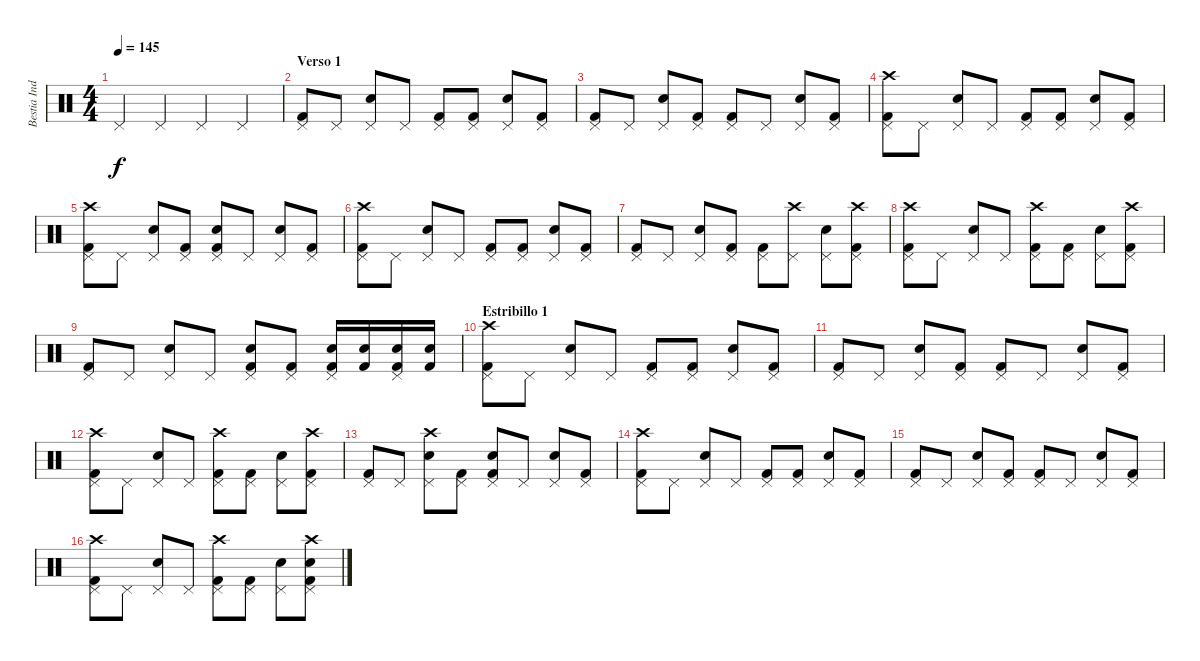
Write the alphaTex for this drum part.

\track ("Bestia Indomable" "Bestia Ind") {instrument percussion}
\staff {score}
\articulation defaults
\ts (4 4)
\tempo 145
\clef neutral
\ks c "Pedal Hi-Hat (hit)"{t}.4{dy f} "Pedal Hi-Hat (hit)".4 "Pedal Hi-Hat (hit)".4 "Pedal Hi-Hat (hit)".4
|
\section ("" "Verso 1")
("Pedal Hi-Hat (hit)" "Kick (hit) 2").8 "Pedal Hi-Hat (hit)".8 ("Pedal Hi-Hat (hit)" "Electric Snare (hit)").8 "Pedal Hi-Hat (hit)".8 ("Pedal Hi-Hat (hit)" "Kick (hit) 2").8 ("Pedal Hi-Hat (hit)" "Kick (hit) 2").8 ("Pedal Hi-Hat (hit)" "Electric Snare (hit)").8 ("Pedal Hi-Hat (hit)" "Kick (hit) 2").8 |
("Pedal Hi-Hat (hit)" "Kick (hit) 2").8 "Pedal Hi-Hat (hit)".8 ("Pedal Hi-Hat (hit)" "Electric Snare (hit)").8 ("Pedal Hi-Hat (hit)" "Kick (hit) 2").8 ("Pedal Hi-Hat (hit)" "Kick (hit) 2").8 "Pedal Hi-Hat (hit)".8 ("Pedal Hi-Hat (hit)" "Electric Snare (hit)").8 ("Pedal Hi-Hat (hit)" "Kick (hit) 2").8 |
("Pedal Hi-Hat (hit)" "Crash high (hit)" "Kick (hit) 2").8 "Pedal Hi-Hat (hit)".8 ("Pedal Hi-Hat (hit)" "Electric Snare (hit)").8 "Pedal Hi-Hat (hit)".8 ("Pedal Hi-Hat (hit)" "Kick (hit) 2").8 ("Pedal Hi-Hat (hit)" "Kick (hit) 2").8 ("Pedal Hi-Hat (hit)" "Electric Snare (hit)").8 ("Pedal Hi-Hat (hit)" "Kick (hit) 2").8 |
("Pedal Hi-Hat (hit)" "Crash high (hit)" "Kick (hit) 2").8 "Pedal Hi-Hat (hit)".8 ("Pedal Hi-Hat (hit)" "Electric Snare (hit)").8 ("Pedal Hi-Hat (hit)" "Kick (hit) 2").8 ("Pedal Hi-Hat (hit)" "Electric Snare (hit)" "Kick (hit) 2").8 "Pedal Hi-Hat (hit)".8 ("Pedal Hi-Hat (hit)" "Electric Snare (hit)").8 ("Pedal Hi-Hat (hit)" "Kick (hit) 2").8 |
("Pedal Hi-Hat (hit)" "Crash high (hit)" "Kick (hit) 2").8 "Pedal Hi-Hat (hit)".8 ("Pedal Hi-Hat (hit)" "Electric Snare (hit)").8 "Pedal Hi-Hat (hit)".8 ("Pedal Hi-Hat (hit)" "Kick (hit) 2").8 ("Pedal Hi-Hat (hit)" "Kick (hit) 2").8 ("Pedal Hi-Hat (hit)" "Electric Snare (hit)").8 ("Pedal Hi-Hat (hit)" "Kick (hit) 2").8 |
("Pedal Hi-Hat (hit)" "Kick (hit) 2").8 "Pedal Hi-Hat (hit)".8 ("Pedal Hi-Hat (hit)" "Electric Snare (hit)").8 ("Pedal Hi-Hat (hit)" "Kick (hit) 2").8 ("Pedal Hi-Hat (hit)" "Kick (hit) 2").8 ("Pedal Hi-Hat (hit)" "Crash high (hit)").8 ("Pedal Hi-Hat (hit)" "Electric Snare (hit)").8 ("Pedal Hi-Hat (hit)" "Crash high (hit)" "Kick (hit) 2").8 |
("Pedal Hi-Hat (hit)" "Crash high (hit)" "Kick (hit) 2").8 "Pedal Hi-Hat (hit)".8 ("Pedal Hi-Hat (hit)" "Electric Snare (hit)").8 "Pedal Hi-Hat (hit)".8 ("Pedal Hi-Hat (hit)" "Crash high (hit)" "Kick (hit) 2").8 ("Pedal Hi-Hat (hit)" "Kick (hit) 2").8 ("Pedal Hi-Hat (hit)" "Electric Snare (hit)").8 ("Pedal Hi-Hat (hit)" "Crash high (hit)" "Kick (hit) 2").8 |
("Pedal Hi-Hat (hit)" "Kick (hit) 2").8 "Pedal Hi-Hat (hit)".8 ("Pedal Hi-Hat (hit)" "Electric Snare (hit)").8 "Pedal Hi-Hat (hit)".8 ("Pedal Hi-Hat (hit)" "Electric Snare (hit)" "Kick (hit) 2").8 ("Pedal Hi-Hat (hit)" "Kick (hit) 2").8 ("Pedal Hi-Hat (hit)" "Electric Snare (hit)" "Kick (hit) 2").16 ("Electric Snare (hit)" "Kick (hit) 2").16 ("Pedal Hi-Hat (hit)" "Electric Snare (hit)" "Kick (hit) 2").16 ("Electric Snare (hit)" "Kick (hit) 2").16 |
\section ("" "Estribillo 1")
("Pedal Hi-Hat (hit)" "Crash high (hit)" "Kick (hit) 2").8 "Pedal Hi-Hat (hit)".8 ("Pedal Hi-Hat (hit)" "Electric Snare (hit)").8 "Pedal Hi-Hat (hit)".8 ("Pedal Hi-Hat (hit)" "Kick (hit) 2").8 ("Pedal Hi-Hat (hit)" "Kick (hit) 2").8 ("Pedal Hi-Hat (hit)" "Electric Snare (hit)").8 ("Pedal Hi-Hat (hit)" "Kick (hit) 2").8 |
("Pedal Hi-Hat (hit)" "Kick (hit) 2").8 "Pedal Hi-Hat (hit)".8 ("Pedal Hi-Hat (hit)" "Electric Snare (hit)").8 ("Pedal Hi-Hat (hit)" "Kick (hit) 2").8 ("Pedal Hi-Hat (hit)" "Kick (hit) 2").8 "Pedal Hi-Hat (hit)".8 ("Pedal Hi-Hat (hit)" "Electric Snare (hit)").8 ("Pedal Hi-Hat (hit)" "Kick (hit) 2").8 |
("Pedal Hi-Hat (hit)" "Crash high (hit)" "Kick (hit) 2").8 "Pedal Hi-Hat (hit)".8 ("Pedal Hi-Hat (hit)" "Electric Snare (hit)").8 "Pedal Hi-Hat (hit)".8 ("Pedal Hi-Hat (hit)" "Crash high (hit)" "Kick (hit) 2").8 ("Pedal Hi-Hat (hit)" "Kick (hit) 2").8 ("Pedal Hi-Hat (hit)" "Electric Snare (hit)").8 ("Pedal Hi-Hat (hit)" "Crash high (hit)" "Kick (hit) 2").8 |
("Pedal Hi-Hat (hit)" "Kick (hit) 2").8 "Pedal Hi-Hat (hit)".8 ("Pedal Hi-Hat (hit)" "Crash high (hit)" "Electric Snare (hit)").8 ("Pedal Hi-Hat (hit)" "Kick (hit) 2").8 ("Pedal Hi-Hat (hit)" "Electric Snare (hit)" "Kick (hit) 2").8 "Pedal Hi-Hat (hit)".8 ("Pedal Hi-Hat (hit)" "Electric Snare (hit)").8 ("Pedal Hi-Hat (hit)" "Kick (hit) 2").8 |
("Pedal Hi-Hat (hit)" "Crash high (hit)" "Kick (hit) 2").8 "Pedal Hi-Hat (hit)".8 ("Pedal Hi-Hat (hit)" "Electric Snare (hit)").8 "Pedal Hi-Hat (hit)".8 ("Pedal Hi-Hat (hit)" "Kick (hit) 2").8 ("Pedal Hi-Hat (hit)" "Kick (hit) 2").8 ("Pedal Hi-Hat (hit)" "Electric Snare (hit)").8 ("Pedal Hi-Hat (hit)" "Kick (hit) 2").8 |
("Pedal Hi-Hat (hit)" "Kick (hit) 2").8 "Pedal Hi-Hat (hit)".8 ("Pedal Hi-Hat (hit)" "Electric Snare (hit)").8 ("Pedal Hi-Hat (hit)" "Kick (hit) 2").8 ("Pedal Hi-Hat (hit)" "Kick (hit) 2").8 "Pedal Hi-Hat (hit)".8 ("Pedal Hi-Hat (hit)" "Electric Snare (hit)").8 ("Pedal Hi-Hat (hit)" "Kick (hit) 2").8 |
("Pedal Hi-Hat (hit)" "Crash high (hit)" "Kick (hit) 2").8 "Pedal Hi-Hat (hit)".8 ("Pedal Hi-Hat (hit)" "Electric Snare (hit)").8 "Pedal Hi-Hat (hit)".8 ("Pedal Hi-Hat (hit)" "Crash high (hit)" "Kick (hit) 2").8 ("Pedal Hi-Hat (hit)" "Kick (hit) 2").8 ("Pedal Hi-Hat (hit)" "Electric Snare (hit)").8 ("Pedal Hi-Hat (hit)" "Crash high (hit)" "Electric Snare (hit)" "Kick (hit) 2").8
